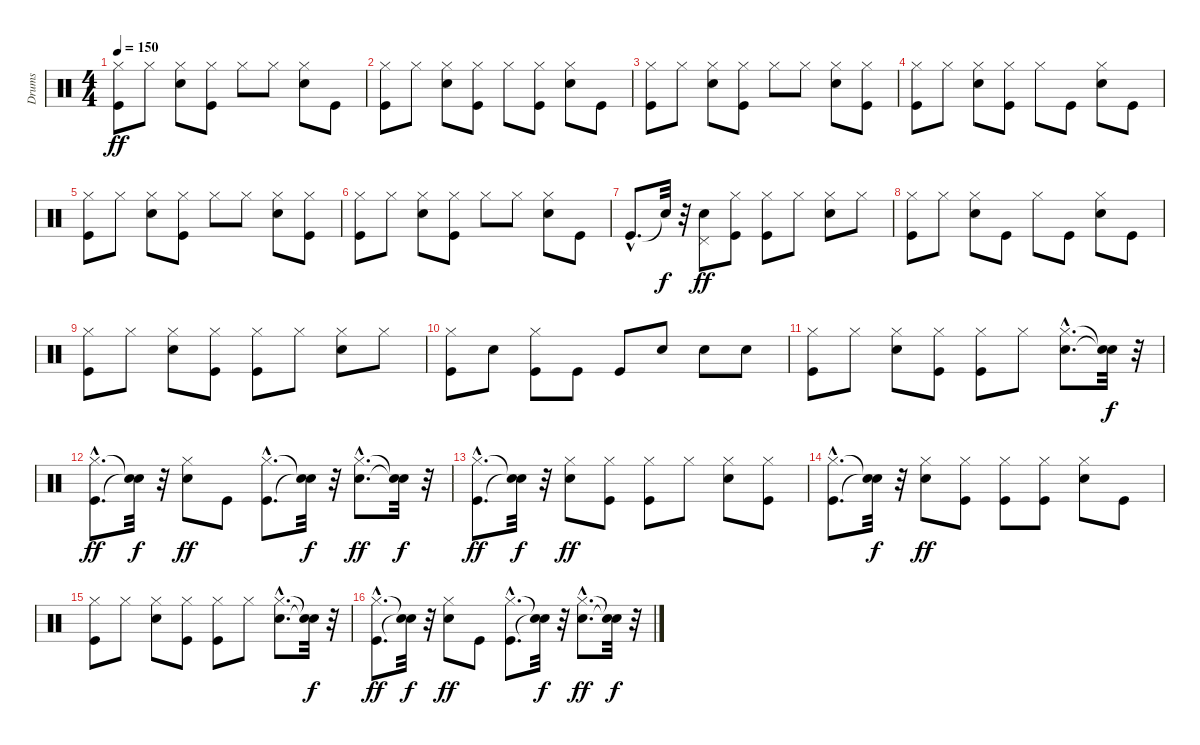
\track ("Drums" "Drums") {instrument percussion}
\staff {score}
\articulation defaults
\ts (4 4)
\tempo 150
\clef neutral
\ks c
("Kick (hit)" "Hi-Hat (closed)").8{dy ff} "Hi-Hat (closed)".8 ("Snare (hit) 2" "Hi-Hat (closed)").8 ("Kick (hit)" "Hi-Hat (closed)").8 "Hi-Hat (closed)".8 "Hi-Hat (closed)".8 ("Snare (hit) 2" "Hi-Hat (closed)").8 "Kick (hit)".8 |
("Kick (hit)" "Hi-Hat (closed)").8 "Hi-Hat (closed)".8 ("Snare (hit) 2" "Hi-Hat (closed)").8 ("Kick (hit)" "Hi-Hat (closed)").8 "Hi-Hat (closed)".8 ("Kick (hit)" "Hi-Hat (closed)").8 ("Snare (hit) 2" "Hi-Hat (closed)").8 "Kick (hit)".8 |
("Kick (hit)" "Hi-Hat (closed)").8 "Hi-Hat (closed)".8 ("Snare (hit) 2" "Hi-Hat (closed)").8 ("Kick (hit)" "Hi-Hat (closed)").8 "Hi-Hat (closed)".8 "Hi-Hat (closed)".8 ("Snare (hit) 2" "Hi-Hat (closed)").8 ("Kick (hit)" "Hi-Hat (closed)").8 |
("Kick (hit)" "Hi-Hat (closed)").8 "Hi-Hat (closed)".8 ("Snare (hit) 2" "Hi-Hat (closed)").8 ("Kick (hit)" "Hi-Hat (closed)").8 "Hi-Hat (closed)".8 "Kick (hit)".8 ("Snare (hit) 2" "Hi-Hat (closed)").8 "Kick (hit)".8 |
("Kick (hit)" "Hi-Hat (closed)").8 "Hi-Hat (closed)".8 ("Snare (hit) 2" "Hi-Hat (closed)").8 ("Kick (hit)" "Hi-Hat (closed)").8 "Hi-Hat (closed)".8 "Hi-Hat (closed)".8 ("Snare (hit) 2" "Hi-Hat (closed)").8 ("Kick (hit)" "Hi-Hat (closed)").8 |
("Kick (hit)" "Hi-Hat (closed)").8 "Hi-Hat (closed)".8 ("Snare (hit) 2" "Hi-Hat (closed)").8 ("Kick (hit)" "Hi-Hat (closed)").8 "Hi-Hat (closed)".8 "Hi-Hat (closed)".8 ("Snare (hit) 2" "Hi-Hat (closed)").8 "Kick (hit)".8 |
"Kick (hit)"{hac}.8{d} "Snare (hit)"{t}.32{dy f} r.32 ("Snare (hit) 2" "Pedal Hi-Hat (hit)").8{dy ff} ("Kick (hit)" "Hi-Hat (closed)").8 ("Kick (hit)" "Hi-Hat (closed)").8 "Hi-Hat (closed)".8 ("Snare (hit) 2" "Hi-Hat (closed)").8 "Hi-Hat (closed)".8 |
("Kick (hit)" "Hi-Hat (closed)").8 "Hi-Hat (closed)".8 ("Snare (hit) 2" "Hi-Hat (closed)").8 "Kick (hit)".8 "Hi-Hat (closed)".8 "Kick (hit)".8 ("Snare (hit) 2" "Hi-Hat (closed)").8 "Kick (hit)".8 |
("Kick (hit)" "Hi-Hat (closed)").8 "Hi-Hat (closed)".8 ("Snare (hit) 2" "Hi-Hat (closed)").8 ("Kick (hit)" "Hi-Hat (closed)").8 ("Kick (hit)" "Hi-Hat (closed)").8 "Hi-Hat (closed)".8 ("Snare (hit) 2" "Hi-Hat (closed)").8 "Hi-Hat (closed)".8 |
("Kick (hit)" "Hi-Hat (closed)").8 "Snare (hit) 2".8 ("Kick (hit)" "Hi-Hat (closed)").8 "Kick (hit)".8 "Kick (hit)".8 "Snare (hit) 2".8 "Snare (hit) 2".8 "Snare (hit) 2".8 |
("Kick (hit)" "Hi-Hat (closed)").8 "Hi-Hat (closed)".8 ("Snare (hit) 2" "Hi-Hat (closed)").8 ("Kick (hit)" "Hi-Hat (closed)").8 ("Kick (hit)" "Hi-Hat (closed)").8 "Hi-Hat (closed)".8 ("Snare (hit) 2"{hac} "Hi-Hat (closed)"{hac}).8{d} ("Snare (hit)"{t} "Snare (hit)"{t}).32{dy f} r.32 |
("Kick (hit)"{hac} "Hi-Hat (closed)"{hac}).8{d dy ff} ("Snare (hit)"{t} "Snare (hit)"{t}).32{dy f} r.32 ("Snare (hit) 2" "Hi-Hat (closed)").8{dy ff} "Kick (hit)".8 ("Kick (hit)"{hac} "Hi-Hat (closed)"{hac}).8{d} ("Snare (hit)"{t} "Snare (hit)"{t}).32{dy f} r.32 ("Snare (hit) 2"{hac} "Hi-Hat (closed)"{hac}).8{d dy ff} ("Snare (hit)"{t} "Snare (hit)"{t}).32{dy f} r.32 |
("Kick (hit)"{hac} "Hi-Hat (closed)"{hac}).8{d dy ff} ("Snare (hit)"{t} "Snare (hit)"{t}).32{dy f} r.32 ("Snare (hit) 2" "Hi-Hat (closed)").8{dy ff} ("Kick (hit)" "Hi-Hat (closed)").8 ("Kick (hit)" "Hi-Hat (closed)").8 "Hi-Hat (closed)".8 ("Snare (hit) 2" "Hi-Hat (closed)").8 ("Kick (hit)" "Hi-Hat (closed)").8 |
("Kick (hit)"{hac} "Hi-Hat (closed)"{hac}).8{d} ("Snare (hit)"{t} "Snare (hit)"{t}).32{dy f} r.32 ("Snare (hit) 2" "Hi-Hat (closed)").8{dy ff} ("Kick (hit)" "Hi-Hat (closed)").8 ("Kick (hit)" "Hi-Hat (closed)").8 ("Kick (hit)" "Hi-Hat (closed)").8 ("Snare (hit) 2" "Hi-Hat (closed)").8 "Kick (hit)".8 |
("Kick (hit)" "Hi-Hat (closed)").8 "Hi-Hat (closed)".8 ("Snare (hit) 2" "Hi-Hat (closed)").8 ("Kick (hit)" "Hi-Hat (closed)").8 ("Kick (hit)" "Hi-Hat (closed)").8 "Hi-Hat (closed)".8 ("Snare (hit) 2"{hac} "Hi-Hat (closed)"{hac}).8{d} ("Snare (hit)"{t} "Snare (hit)"{t}).32{dy f} r.32 |
("Kick (hit)"{hac} "Hi-Hat (closed)"{hac}).8{d dy ff} ("Snare (hit)"{t} "Snare (hit)"{t}).32{dy f} r.32 ("Snare (hit) 2" "Hi-Hat (closed)").8{dy ff} "Kick (hit)".8 ("Kick (hit)"{hac} "Hi-Hat (closed)"{hac}).8{d} ("Snare (hit)"{t} "Snare (hit)"{t}).32{dy f} r.32 ("Snare (hit) 2"{hac} "Hi-Hat (closed)"{hac}).8{d dy ff} ("Snare (hit)"{t} "Snare (hit)"{t}).32{dy f} r.32
